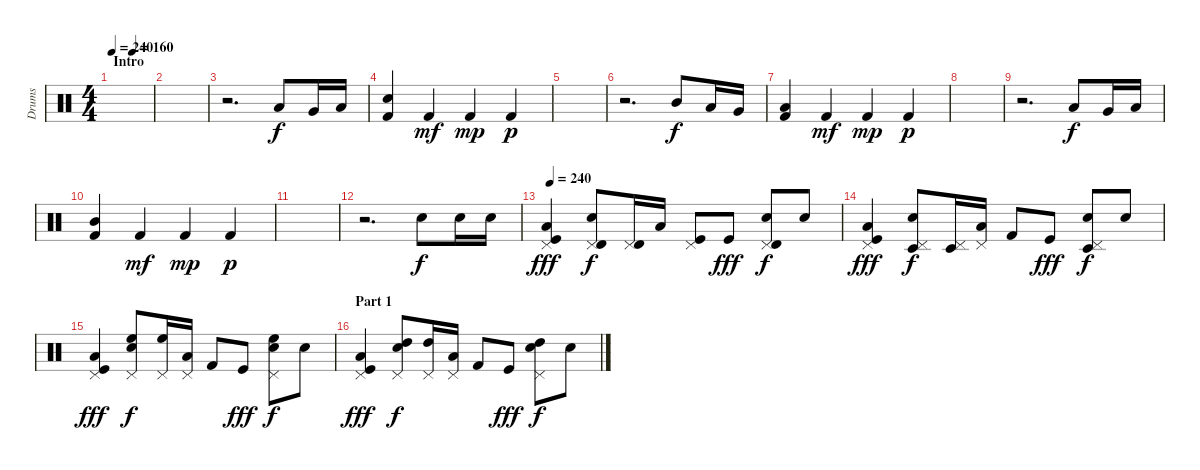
\track ("Drums" "Drums") {instrument percussion}
\staff {score}
\articulation defaults
\ts (4 4)
\section ("" "Intro")
\tempo 240
\tempo (160 0.5)
\tempo 240
\clef neutral
\ks c
|
|
r.2{d} "Low Tom (hit)".8 "Very Low Tom (hit)".16 "Low Floor Tom (hit)".16 |
("Electric Snare (hit)" "Kick (hit) 2").4 "Kick (hit) 2".4{dy mf} "Kick (hit) 2".4{dy mp} "Kick (hit) 2".4{dy p} |
|
r.2{d} "Mid Tom (hit)".8{dy f} "Low Tom (hit)".16 "Very Low Tom (hit)".16 |
("Low Floor Tom (hit)" "Kick (hit) 2").4 "Kick (hit) 2".4{dy mf} "Kick (hit) 2".4{dy mp} "Kick (hit) 2".4{dy p} |
|
r.2{d} "Low Floor Tom (hit)".8{dy f} "Very Low Tom (hit)".16 "Low Tom (hit)".16 |
("Mid Tom (hit)" "Kick (hit) 2").4 "Kick (hit) 2".4{dy mf} "Kick (hit) 2".4{dy mp} "Kick (hit) 2".4{dy p} |
|
r.2{d} "Electric Snare (hit)".8{dy f} "Electric Snare (hit)".16 "Electric Snare (hit)".16 |
\tempo 240
("Pedal Hi-Hat (hit)" "Low Tom (hit)" "Kick (hit)").4{dy fff} ("Pedal Hi-Hat (hit)" "Timbale high (hit)" "Electric Snare (hit)").8{dy f} ("Pedal Hi-Hat (hit)" "Timbale high (hit)").16 "Low Tom (hit)".16 ("Pedal Hi-Hat (hit)" "Kick (hit)").8 "Kick (hit)".8{dy fff} ("Pedal Hi-Hat (hit)" "Timbale high (hit)" "Electric Snare (hit)").8{dy f} "Electric Snare (hit)".8 |
("Pedal Hi-Hat (hit)" "Low Tom (hit)" "Kick (hit)").4{dy fff} ("Pedal Hi-Hat (hit)" "Timbale low (hit)" "Electric Snare (hit)").8{dy f} ("Pedal Hi-Hat (hit)" "Timbale low (hit)").16 ("Pedal Hi-Hat (hit)" "Low Tom (hit)").16 "Kick (hit) 2".8 "Kick (hit)".8{dy fff} ("Pedal Hi-Hat (hit)" "Timbale low (hit)" "Electric Snare (hit)").8{dy f} "Electric Snare (hit)".8 |
("Pedal Hi-Hat (hit)" "Low Tom (hit)" "Kick (hit)").4{dy fff} ("Pedal Hi-Hat (hit)" "High Floor Tom (hit)" "Electric Snare (hit)").8{dy f} ("Pedal Hi-Hat (hit)" "High Floor Tom (hit)").16 ("Pedal Hi-Hat (hit)" "Low Tom (hit)").16 "Kick (hit) 2".8 "Kick (hit)".8{dy fff} ("Pedal Hi-Hat (hit)" "High Floor Tom (hit)" "Electric Snare (hit)").8{dy f} "Electric Snare (hit)".8 |
\section ("" "Part 1")
("Pedal Hi-Hat (hit)" "Low Tom (hit)" "Kick (hit)").4{dy fff} ("Pedal Hi-Hat (hit)" "High Tom (hit)" "Electric Snare (hit)").8{dy f} ("Pedal Hi-Hat (hit)" "High Tom (hit)").16 ("Pedal Hi-Hat (hit)" "Low Tom (hit)").16 "Kick (hit) 2".8 "Kick (hit)".8{dy fff} ("Pedal Hi-Hat (hit)" "High Tom (hit)" "Electric Snare (hit)").8{dy f} "Electric Snare (hit)".8
